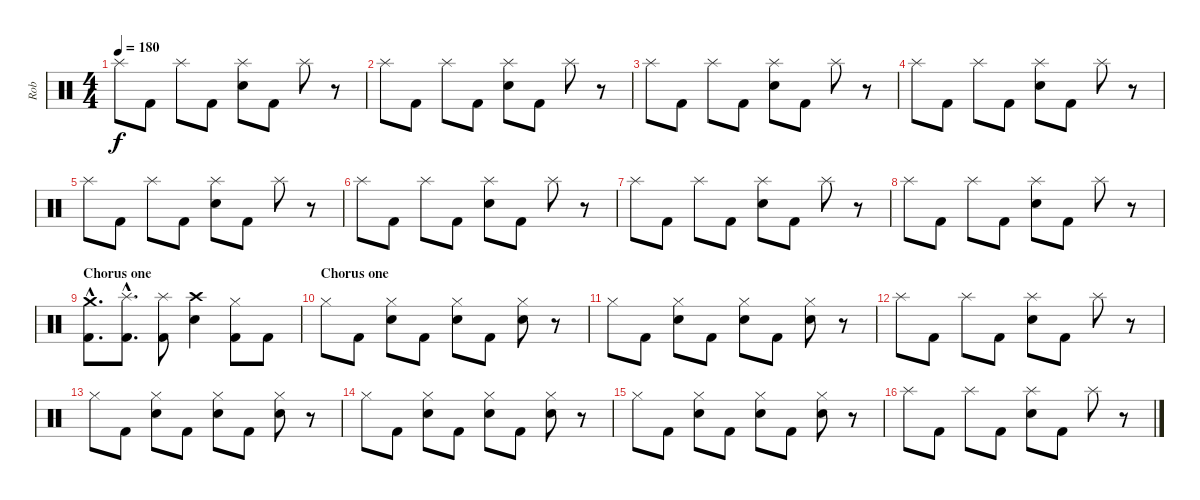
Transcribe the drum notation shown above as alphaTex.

\track ("Rob" "Rob") {instrument percussion}
\staff {score}
\articulation defaults
\ts (4 4)
\tempo 180
\clef neutral
\ks c "Splash (hit)".8{dy f} "Kick (hit) 2".8 "Splash (hit)".8 "Kick (hit) 2".8
("Splash (hit)" "Electric Snare (hit)").8 "Kick (hit) 2".8 "Splash (hit)".8 r.8 |
"Splash (hit)".8 "Kick (hit) 2".8 "Splash (hit)".8 "Kick (hit) 2".8 ("Splash (hit)" "Electric Snare (hit)").8 "Kick (hit) 2".8 "Splash (hit)".8 r.8 |
"Splash (hit)".8 "Kick (hit) 2".8 "Splash (hit)".8 "Kick (hit) 2".8 ("Splash (hit)" "Electric Snare (hit)").8 "Kick (hit) 2".8 "Splash (hit)".8 r.8 |
"Splash (hit)".8 "Kick (hit) 2".8 "Splash (hit)".8 "Kick (hit) 2".8 ("Splash (hit)" "Electric Snare (hit)").8 "Kick (hit) 2".8 "Splash (hit)".8 r.8 |
"Splash (hit)".8 "Kick (hit) 2".8 "Splash (hit)".8 "Kick (hit) 2".8 ("Splash (hit)" "Electric Snare (hit)").8 "Kick (hit) 2".8 "Splash (hit)".8 r.8 |
"Splash (hit)".8 "Kick (hit) 2".8 "Splash (hit)".8 "Kick (hit) 2".8 ("Splash (hit)" "Electric Snare (hit)").8 "Kick (hit) 2".8 "Splash (hit)".8 r.8 |
"Splash (hit)".8 "Kick (hit) 2".8 "Splash (hit)".8 "Kick (hit) 2".8 ("Splash (hit)" "Electric Snare (hit)").8 "Kick (hit) 2".8 "Splash (hit)".8 r.8 |
"Splash (hit)".8 "Kick (hit) 2".8 "Splash (hit)".8 "Kick (hit) 2".8 ("Splash (hit)" "Electric Snare (hit)").8 "Kick (hit) 2".8 "Splash (hit)".8 r.8 |
\section ("" "Chorus one")
("Crash medium (hit)"{hac} "Kick (hit) 2"{hac}).8{d} ("Splash (hit)"{hac} "Kick (hit) 2"{hac}).8{d} ("Splash (hit)" "Kick (hit) 2").8 ("Crash high (hit)" "Electric Snare (hit)").4 ("Hi-Hat (closed)" "Kick (hit) 2").8 "Kick (hit) 2".8 |
\section ("" "Chorus one")
"Hi-Hat (closed)".8 "Kick (hit) 2".8 ("Hi-Hat (closed)" "Electric Snare (hit)").8 "Kick (hit) 2".8 ("Hi-Hat (closed)" "Electric Snare (hit)").8 "Kick (hit) 2".8 ("Hi-Hat (closed)" "Electric Snare (hit)").8 r.8 |
\section ("" "")
"Hi-Hat (closed)".8 "Kick (hit) 2".8 ("Hi-Hat (closed)" "Electric Snare (hit)").8 "Kick (hit) 2".8 ("Hi-Hat (closed)" "Electric Snare (hit)").8 "Kick (hit) 2".8 ("Hi-Hat (closed)" "Electric Snare (hit)").8 r.8 |
"Splash (hit)".8 "Kick (hit) 2".8 "Splash (hit)".8 "Kick (hit) 2".8 ("Splash (hit)" "Electric Snare (hit)").8 "Kick (hit) 2".8 "Splash (hit)".8 r.8 |
"Hi-Hat (closed)".8 "Kick (hit) 2".8 ("Hi-Hat (closed)" "Electric Snare (hit)").8 "Kick (hit) 2".8 ("Hi-Hat (closed)" "Electric Snare (hit)").8 "Kick (hit) 2".8 ("Hi-Hat (closed)" "Electric Snare (hit)").8 r.8 |
"Hi-Hat (closed)".8 "Kick (hit) 2".8 ("Hi-Hat (closed)" "Electric Snare (hit)").8 "Kick (hit) 2".8 ("Hi-Hat (closed)" "Electric Snare (hit)").8 "Kick (hit) 2".8 ("Hi-Hat (closed)" "Electric Snare (hit)").8 r.8 |
"Hi-Hat (closed)".8 "Kick (hit) 2".8 ("Hi-Hat (closed)" "Electric Snare (hit)").8 "Kick (hit) 2".8 ("Hi-Hat (closed)" "Electric Snare (hit)").8 "Kick (hit) 2".8 ("Hi-Hat (closed)" "Electric Snare (hit)").8 r.8 |
"Splash (hit)".8 "Kick (hit) 2".8 "Splash (hit)".8 "Kick (hit) 2".8 ("Splash (hit)" "Electric Snare (hit)").8 "Kick (hit) 2".8 "Splash (hit)".8 r.8
